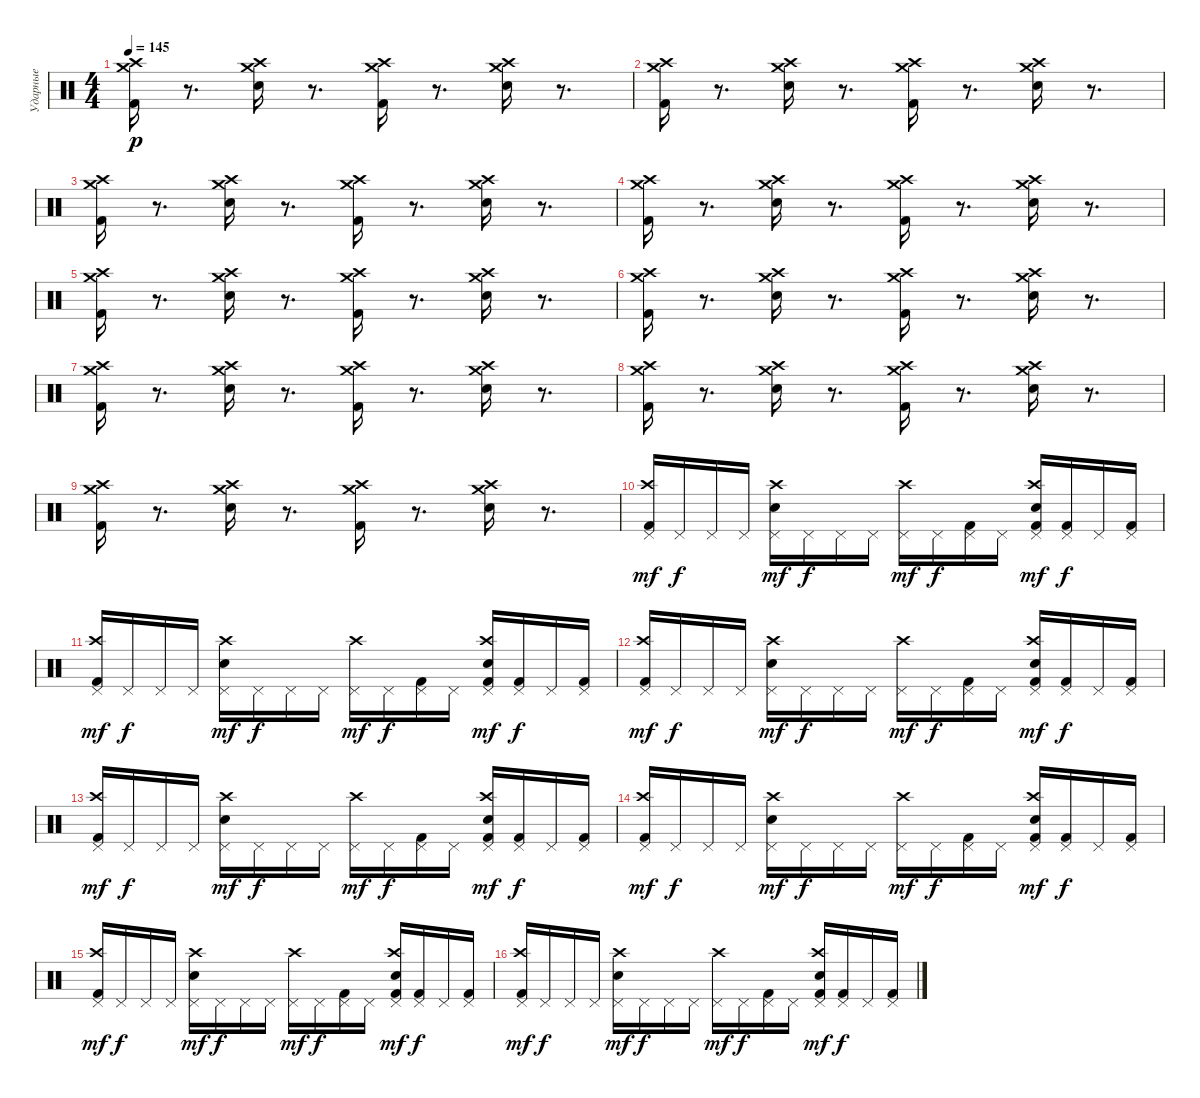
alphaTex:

\track ("Ударные" "Ударные") {instrument percussion}
\staff {score}
\articulation defaults
\ts (4 4)
\tempo 145
\clef neutral
\ks c
("Kick (hit) 2" "Crash high (hit)" "Crash medium (hit)").16{dy p} r.8{d} ("Crash high (hit)" "Crash medium (hit)" "Electric Snare (hit)").16 r.8{d} ("Crash high (hit)" "Crash medium (hit)" "Kick (hit) 2").16 r.8{d} ("Crash high (hit)" "Crash medium (hit)" "Electric Snare (hit)").16 r.8{d} |
("Kick (hit) 2" "Crash high (hit)" "Crash medium (hit)").16 r.8{d} ("Crash high (hit)" "Crash medium (hit)" "Electric Snare (hit)").16 r.8{d} ("Crash high (hit)" "Crash medium (hit)" "Kick (hit) 2").16 r.8{d} ("Crash high (hit)" "Crash medium (hit)" "Electric Snare (hit)").16 r.8{d} |
("Kick (hit) 2" "Crash high (hit)" "Crash medium (hit)").16 r.8{d} ("Crash high (hit)" "Crash medium (hit)" "Electric Snare (hit)").16 r.8{d} ("Crash high (hit)" "Crash medium (hit)" "Kick (hit) 2").16 r.8{d} ("Crash high (hit)" "Crash medium (hit)" "Electric Snare (hit)").16 r.8{d} |
("Kick (hit) 2" "Crash high (hit)" "Crash medium (hit)").16 r.8{d} ("Crash high (hit)" "Crash medium (hit)" "Electric Snare (hit)").16 r.8{d} ("Crash high (hit)" "Crash medium (hit)" "Kick (hit) 2").16 r.8{d} ("Crash high (hit)" "Crash medium (hit)" "Electric Snare (hit)").16 r.8{d} |
("Kick (hit) 2" "Crash high (hit)" "Crash medium (hit)").16 r.8{d} ("Crash high (hit)" "Crash medium (hit)" "Electric Snare (hit)").16 r.8{d} ("Crash high (hit)" "Crash medium (hit)" "Kick (hit) 2").16 r.8{d} ("Crash high (hit)" "Crash medium (hit)" "Electric Snare (hit)").16 r.8{d} |
("Kick (hit) 2" "Crash high (hit)" "Crash medium (hit)").16 r.8{d} ("Crash high (hit)" "Crash medium (hit)" "Electric Snare (hit)").16 r.8{d} ("Crash high (hit)" "Crash medium (hit)" "Kick (hit) 2").16 r.8{d} ("Crash high (hit)" "Crash medium (hit)" "Electric Snare (hit)").16 r.8{d} |
("Kick (hit) 2" "Crash high (hit)" "Crash medium (hit)").16 r.8{d} ("Crash high (hit)" "Crash medium (hit)" "Electric Snare (hit)").16 r.8{d} ("Crash high (hit)" "Crash medium (hit)" "Kick (hit) 2").16 r.8{d} ("Crash high (hit)" "Crash medium (hit)" "Electric Snare (hit)").16 r.8{d} |
("Kick (hit) 2" "Crash high (hit)" "Crash medium (hit)").16 r.8{d} ("Crash high (hit)" "Crash medium (hit)" "Electric Snare (hit)").16 r.8{d} ("Crash high (hit)" "Crash medium (hit)" "Kick (hit) 2").16 r.8{d} ("Crash high (hit)" "Crash medium (hit)" "Electric Snare (hit)").16 r.8{d} |
("Kick (hit) 2" "Crash high (hit)" "Crash medium (hit)").16 r.8{d} ("Crash high (hit)" "Crash medium (hit)" "Electric Snare (hit)").16 r.8{d} ("Crash high (hit)" "Crash medium (hit)" "Kick (hit) 2").16 r.8{d} ("Crash high (hit)" "Crash medium (hit)" "Electric Snare (hit)").16 r.8{d} |
("Kick (hit) 2" "Pedal Hi-Hat (hit)" "Crash high (hit)").16{dy mf} "Pedal Hi-Hat (hit)".16{dy f} "Pedal Hi-Hat (hit)".16 "Pedal Hi-Hat (hit)".16 ("Electric Snare (hit)" "Pedal Hi-Hat (hit)" "Crash high (hit)").16{dy mf} "Pedal Hi-Hat (hit)".16{dy f} "Pedal Hi-Hat (hit)".16 "Pedal Hi-Hat (hit)".16 ("Pedal Hi-Hat (hit)" "Crash high (hit)").16{dy mf} "Pedal Hi-Hat (hit)".16{dy f} ("Kick (hit) 2" "Pedal Hi-Hat (hit)").16 "Pedal Hi-Hat (hit)".16 ("Kick (hit) 2" "Electric Snare (hit)" "Pedal Hi-Hat (hit)" "Crash high (hit)").16{dy mf} ("Kick (hit) 2" "Pedal Hi-Hat (hit)").16{dy f} "Pedal Hi-Hat (hit)".16 ("Kick (hit) 2" "Pedal Hi-Hat (hit)").16 |
("Crash high (hit)" "Kick (hit) 2" "Pedal Hi-Hat (hit)").16{dy mf} "Pedal Hi-Hat (hit)".16{dy f} "Pedal Hi-Hat (hit)".16 "Pedal Hi-Hat (hit)".16 ("Crash high (hit)" "Electric Snare (hit)" "Pedal Hi-Hat (hit)").16{dy mf} "Pedal Hi-Hat (hit)".16{dy f} "Pedal Hi-Hat (hit)".16 "Pedal Hi-Hat (hit)".16 ("Crash high (hit)" "Pedal Hi-Hat (hit)").16{dy mf} "Pedal Hi-Hat (hit)".16{dy f} ("Kick (hit) 2" "Pedal Hi-Hat (hit)").16 "Pedal Hi-Hat (hit)".16 ("Crash high (hit)" "Kick (hit) 2" "Electric Snare (hit)" "Pedal Hi-Hat (hit)").16{dy mf} ("Kick (hit) 2" "Pedal Hi-Hat (hit)").16{dy f} "Pedal Hi-Hat (hit)".16 ("Kick (hit) 2" "Pedal Hi-Hat (hit)").16 |
("Crash high (hit)" "Kick (hit) 2" "Pedal Hi-Hat (hit)").16{dy mf} "Pedal Hi-Hat (hit)".16{dy f} "Pedal Hi-Hat (hit)".16 "Pedal Hi-Hat (hit)".16 ("Crash high (hit)" "Electric Snare (hit)" "Pedal Hi-Hat (hit)").16{dy mf} "Pedal Hi-Hat (hit)".16{dy f} "Pedal Hi-Hat (hit)".16 "Pedal Hi-Hat (hit)".16 ("Crash high (hit)" "Pedal Hi-Hat (hit)").16{dy mf} "Pedal Hi-Hat (hit)".16{dy f} ("Kick (hit) 2" "Pedal Hi-Hat (hit)").16 "Pedal Hi-Hat (hit)".16 ("Crash high (hit)" "Kick (hit) 2" "Electric Snare (hit)" "Pedal Hi-Hat (hit)").16{dy mf} ("Kick (hit) 2" "Pedal Hi-Hat (hit)").16{dy f} "Pedal Hi-Hat (hit)".16 ("Kick (hit) 2" "Pedal Hi-Hat (hit)").16 |
("Crash high (hit)" "Kick (hit) 2" "Pedal Hi-Hat (hit)").16{dy mf} "Pedal Hi-Hat (hit)".16{dy f} "Pedal Hi-Hat (hit)".16 "Pedal Hi-Hat (hit)".16 ("Crash high (hit)" "Electric Snare (hit)" "Pedal Hi-Hat (hit)").16{dy mf} "Pedal Hi-Hat (hit)".16{dy f} "Pedal Hi-Hat (hit)".16 "Pedal Hi-Hat (hit)".16 ("Crash high (hit)" "Pedal Hi-Hat (hit)").16{dy mf} "Pedal Hi-Hat (hit)".16{dy f} ("Kick (hit) 2" "Pedal Hi-Hat (hit)").16 "Pedal Hi-Hat (hit)".16 ("Crash high (hit)" "Kick (hit) 2" "Electric Snare (hit)" "Pedal Hi-Hat (hit)").16{dy mf} ("Kick (hit) 2" "Pedal Hi-Hat (hit)").16{dy f} "Pedal Hi-Hat (hit)".16 ("Kick (hit) 2" "Pedal Hi-Hat (hit)").16 |
("Crash high (hit)" "Kick (hit) 2" "Pedal Hi-Hat (hit)").16{dy mf} "Pedal Hi-Hat (hit)".16{dy f} "Pedal Hi-Hat (hit)".16 "Pedal Hi-Hat (hit)".16 ("Crash high (hit)" "Electric Snare (hit)" "Pedal Hi-Hat (hit)").16{dy mf} "Pedal Hi-Hat (hit)".16{dy f} "Pedal Hi-Hat (hit)".16 "Pedal Hi-Hat (hit)".16 ("Crash high (hit)" "Pedal Hi-Hat (hit)").16{dy mf} "Pedal Hi-Hat (hit)".16{dy f} ("Kick (hit) 2" "Pedal Hi-Hat (hit)").16 "Pedal Hi-Hat (hit)".16 ("Crash high (hit)" "Kick (hit) 2" "Electric Snare (hit)" "Pedal Hi-Hat (hit)").16{dy mf} ("Kick (hit) 2" "Pedal Hi-Hat (hit)").16{dy f} "Pedal Hi-Hat (hit)".16 ("Kick (hit) 2" "Pedal Hi-Hat (hit)").16 |
("Kick (hit) 2" "Pedal Hi-Hat (hit)" "Crash high (hit)").16{dy mf} "Pedal Hi-Hat (hit)".16{dy f} "Pedal Hi-Hat (hit)".16 "Pedal Hi-Hat (hit)".16 ("Electric Snare (hit)" "Pedal Hi-Hat (hit)" "Crash high (hit)").16{dy mf} "Pedal Hi-Hat (hit)".16{dy f} "Pedal Hi-Hat (hit)".16 "Pedal Hi-Hat (hit)".16 ("Pedal Hi-Hat (hit)" "Crash high (hit)").16{dy mf} "Pedal Hi-Hat (hit)".16{dy f} ("Kick (hit) 2" "Pedal Hi-Hat (hit)").16 "Pedal Hi-Hat (hit)".16 ("Kick (hit) 2" "Electric Snare (hit)" "Pedal Hi-Hat (hit)" "Crash high (hit)").16{dy mf} ("Kick (hit) 2" "Pedal Hi-Hat (hit)").16{dy f} "Pedal Hi-Hat (hit)".16 ("Kick (hit) 2" "Pedal Hi-Hat (hit)").16 |
("Kick (hit) 2" "Pedal Hi-Hat (hit)" "Crash high (hit)").16{dy mf} "Pedal Hi-Hat (hit)".16{dy f} "Pedal Hi-Hat (hit)".16 "Pedal Hi-Hat (hit)".16 ("Electric Snare (hit)" "Pedal Hi-Hat (hit)" "Crash high (hit)").16{dy mf} "Pedal Hi-Hat (hit)".16{dy f} "Pedal Hi-Hat (hit)".16 "Pedal Hi-Hat (hit)".16 ("Pedal Hi-Hat (hit)" "Crash high (hit)").16{dy mf} "Pedal Hi-Hat (hit)".16{dy f} ("Kick (hit) 2" "Pedal Hi-Hat (hit)").16 "Pedal Hi-Hat (hit)".16 ("Kick (hit) 2" "Electric Snare (hit)" "Pedal Hi-Hat (hit)" "Crash high (hit)").16{dy mf} ("Kick (hit) 2" "Pedal Hi-Hat (hit)").16{dy f} "Pedal Hi-Hat (hit)".16 ("Kick (hit) 2" "Pedal Hi-Hat (hit)").16
